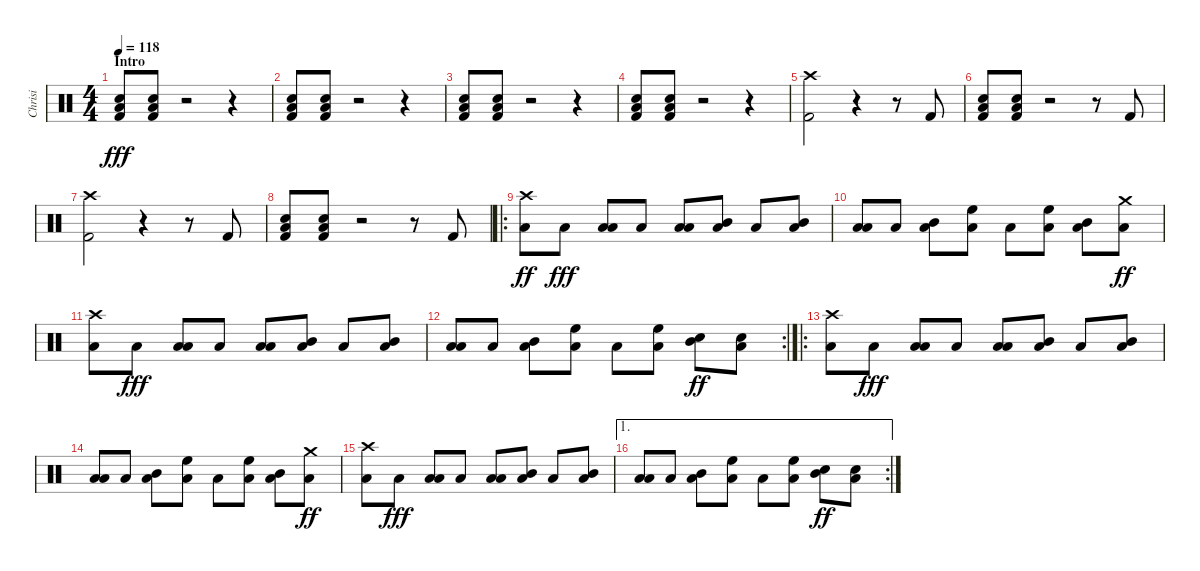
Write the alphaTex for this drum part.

\track ("Chrisi" "Chrisi") {instrument percussion}
\staff {score}
\articulation defaults
\ts (4 4)
\section ("" "Intro")
\tempo 118
\clef neutral
\ks c
("Low Floor Tom (hit)" "Electric Snare (hit)" "Kick (hit) 2").8{dy fff} ("Low Floor Tom (hit)" "Electric Snare (hit)" "Kick (hit) 2").8 r.2 r.4 |
("Low Floor Tom (hit)" "Electric Snare (hit)" "Kick (hit) 2").8 ("Low Floor Tom (hit)" "Electric Snare (hit)" "Kick (hit) 2").8 r.2 r.4 |
("Low Floor Tom (hit)" "Electric Snare (hit)" "Kick (hit) 2").8 ("Low Floor Tom (hit)" "Electric Snare (hit)" "Kick (hit) 2").8 r.2 r.4 |
("Low Floor Tom (hit)" "Electric Snare (hit)" "Kick (hit) 2").8 ("Low Floor Tom (hit)" "Electric Snare (hit)" "Kick (hit) 2").8 r.2 r.4 |
("Crash high (hit)" "Kick (hit) 2").2 r.4 r.8 "Kick (hit) 2".8 |
("Low Floor Tom (hit)" "Electric Snare (hit)" "Kick (hit) 2").8 ("Low Floor Tom (hit)" "Electric Snare (hit)" "Kick (hit) 2").8 r.2 r.8 "Kick (hit) 2".8 |
("Crash high (hit)" "Kick (hit) 2").2 r.4 r.8 "Kick (hit) 2".8 |
("Low Floor Tom (hit)" "Electric Snare (hit)" "Kick (hit) 2").8 ("Low Floor Tom (hit)" "Electric Snare (hit)" "Kick (hit) 2").8 r.2 r.8 "Kick (hit) 2".8 |
\ro
("Low Floor Tom (hit)" "Crash high (hit)").8{dy ff} "Low Floor Tom (hit)".8{dy fff} ("Low Floor Tom (hit)" "Low Floor Tom (hit)").8 "Low Floor Tom (hit)".8 ("Low Floor Tom (hit)" "Low Floor Tom (hit)").8 ("Mid Tom (hit)" "Low Floor Tom (hit)").8 "Low Floor Tom (hit)".8 ("Mid Tom (hit)" "Low Floor Tom (hit)").8 |
("Low Floor Tom (hit)" "Low Floor Tom (hit)").8 "Low Floor Tom (hit)".8 ("Mid Tom (hit)" "Low Floor Tom (hit)").8 ("High Floor Tom (hit)" "Low Floor Tom (hit)").8 "Low Floor Tom (hit)".8 ("High Floor Tom (hit)" "Low Floor Tom (hit)").8 ("Mid Tom (hit)" "Low Floor Tom (hit)").8 ("Low Floor Tom (hit)" "Crash medium (hit)").8{dy ff} |
("Low Floor Tom (hit)" "Crash high (hit)").8 "Low Floor Tom (hit)".8{dy fff} ("Low Floor Tom (hit)" "Low Floor Tom (hit)").8 "Low Floor Tom (hit)".8 ("Low Floor Tom (hit)" "Low Floor Tom (hit)").8 ("Mid Tom (hit)" "Low Floor Tom (hit)").8 "Low Floor Tom (hit)".8 ("Mid Tom (hit)" "Low Floor Tom (hit)").8 |
\rc 2
("Low Floor Tom (hit)" "Low Floor Tom (hit)").8 "Low Floor Tom (hit)".8 ("Mid Tom (hit)" "Low Floor Tom (hit)").8 ("High Floor Tom (hit)" "Low Floor Tom (hit)").8 "Low Floor Tom (hit)".8 ("High Floor Tom (hit)" "Low Floor Tom (hit)").8 ("Mid Tom (hit)" "Electric Snare (hit)").8{dy ff} ("Low Floor Tom (hit)" "Electric Snare (hit)").8 |
\ro
("Low Floor Tom (hit)" "Crash high (hit)").8 "Low Floor Tom (hit)".8{dy fff} ("Low Floor Tom (hit)" "Low Floor Tom (hit)").8 "Low Floor Tom (hit)".8 ("Low Floor Tom (hit)" "Low Floor Tom (hit)").8 ("Mid Tom (hit)" "Low Floor Tom (hit)").8 "Low Floor Tom (hit)".8 ("Mid Tom (hit)" "Low Floor Tom (hit)").8 |
("Low Floor Tom (hit)" "Low Floor Tom (hit)").8 "Low Floor Tom (hit)".8 ("Mid Tom (hit)" "Low Floor Tom (hit)").8 ("High Floor Tom (hit)" "Low Floor Tom (hit)").8 "Low Floor Tom (hit)".8 ("High Floor Tom (hit)" "Low Floor Tom (hit)").8 ("Mid Tom (hit)" "Low Floor Tom (hit)").8 ("Low Floor Tom (hit)" "Crash medium (hit)").8{dy ff} |
("Low Floor Tom (hit)" "Crash high (hit)").8 "Low Floor Tom (hit)".8{dy fff} ("Low Floor Tom (hit)" "Low Floor Tom (hit)").8 "Low Floor Tom (hit)".8 ("Low Floor Tom (hit)" "Low Floor Tom (hit)").8 ("Mid Tom (hit)" "Low Floor Tom (hit)").8 "Low Floor Tom (hit)".8 ("Mid Tom (hit)" "Low Floor Tom (hit)").8 |
\ae 1
\rc 2
("Low Floor Tom (hit)" "Low Floor Tom (hit)").8 "Low Floor Tom (hit)".8 ("Mid Tom (hit)" "Low Floor Tom (hit)").8 ("High Floor Tom (hit)" "Low Floor Tom (hit)").8 "Low Floor Tom (hit)".8 ("High Floor Tom (hit)" "Low Floor Tom (hit)").8 ("Mid Tom (hit)" "Electric Snare (hit)").8{dy ff} ("Low Floor Tom (hit)" "Electric Snare (hit)").8
